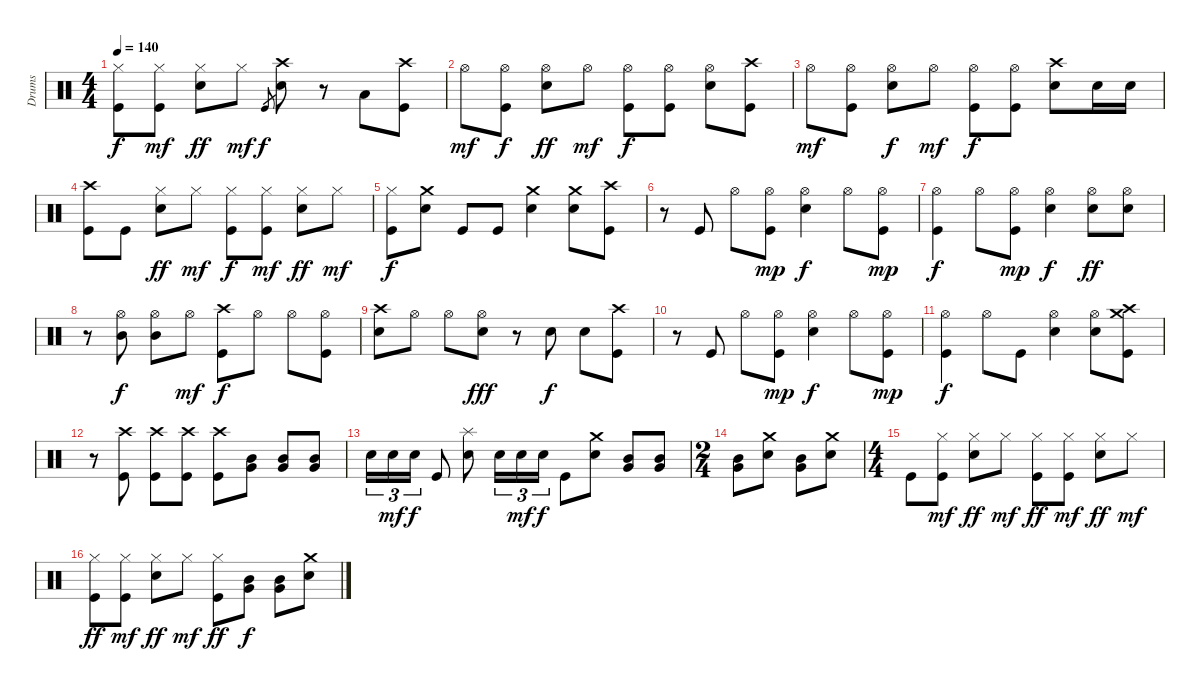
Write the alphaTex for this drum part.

\track ("Drums" "Drums") {instrument percussion}
\staff {score}
\articulation defaults
\ts (4 4)
\tempo 140
\clef neutral
\ks c
("Hi-Hat (closed)" "Kick (hit)").8{dy f} ("Hi-Hat (closed)" "Kick (hit)").8{dy mf} ("Hi-Hat (closed)" "Snare (hit) 2").8{dy ff} "Hi-Hat (closed)".8{dy mf} "Kick (hit)".8{gr dy f} ("Crash high (hit)" "Snare (hit) 2").8 r.8 "Low Tom (hit)".8 ("Crash high (hit)" "Kick (hit)").8 |
"Hi-Hat (open)".8{dy mf} ("Hi-Hat (open)" "Kick (hit)").8{dy f} ("Hi-Hat (open)" "Snare (hit) 2").8{dy ff} "Hi-Hat (open)".8{dy mf} ("Hi-Hat (open)" "Kick (hit)").8{dy f} ("Hi-Hat (open)" "Kick (hit)").8 ("Hi-Hat (open)" "Snare (hit) 2").8 ("Crash high (hit)" "Kick (hit)").8 |
"Hi-Hat (open)".8{dy mf} ("Hi-Hat (open)" "Kick (hit)").8 ("Hi-Hat (open)" "Snare (hit) 2").8{dy f} "Hi-Hat (open)".8{dy mf} ("Hi-Hat (open)" "Kick (hit)").8{dy f} ("Hi-Hat (open)" "Kick (hit)").8 ("Crash high (hit)" "Snare (hit) 2").8 "Snare (hit) 2".16 "Snare (hit) 2".16 |
("Crash high (hit)" "Kick (hit)").8 "Kick (hit)".8 ("Hi-Hat (closed)" "Snare (hit) 2").8{dy ff} "Hi-Hat (closed)".8{dy mf} ("Hi-Hat (closed)" "Kick (hit)").8{dy f} ("Hi-Hat (closed)" "Kick (hit)").8{dy mf} ("Hi-Hat (closed)" "Snare (hit) 2").8{dy ff} "Hi-Hat (closed)".8{dy mf} |
("Hi-Hat (closed)" "Kick (hit)").8{dy f} ("Crash medium (hit)" "Snare (hit) 2").8 "Kick (hit)".8 "Kick (hit)".8 ("Crash medium (hit)" "Snare (hit) 2").4 ("Crash medium (hit)" "Snare (hit) 2").8 ("Crash high (hit)" "Kick (hit)").8 |
r.8 "Kick (hit)".8 "Hi-Hat (open)".8 ("Hi-Hat (open)" "Kick (hit)").8{dy mp} ("Hi-Hat (open)" "Snare (hit) 2").4{dy f} "Hi-Hat (open)".8 ("Hi-Hat (open)" "Kick (hit)").8{dy mp} |
("Hi-Hat (open)" "Kick (hit)").4{dy f} "Hi-Hat (open)".8 ("Hi-Hat (open)" "Kick (hit)").8{dy mp} ("Hi-Hat (open)" "Snare (hit) 2").4{dy f} ("Hi-Hat (open)" "Snare (hit) 2").8{dy ff} ("Hi-Hat (open)" "Snare (hit) 2").8 |
r.8 ("Hi-Hat (open)" "Mid Tom (hit)").8{dy f} ("Hi-Hat (open)" "Mid Tom (hit)").8 "Hi-Hat (open)".8{dy mf} ("Crash high (hit)" "Kick (hit)").8{dy f} "Hi-Hat (open)".8 "Hi-Hat (open)".8 ("Hi-Hat (open)" "Kick (hit)").8 |
("Crash high (hit)" "Snare (hit) 2").8 "Hi-Hat (open)".8 "Hi-Hat (open)".8 ("Hi-Hat (open)" "Snare (hit) 2").8{dy fff} r.8 "Snare (hit) 2".8{dy f} "Snare (hit) 2".8 ("Crash high (hit)" "Kick (hit)").8 |
r.8 "Kick (hit)".8 "Hi-Hat (open)".8 ("Hi-Hat (open)" "Kick (hit)").8{dy mp} ("Hi-Hat (open)" "Snare (hit) 2").4{dy f} "Hi-Hat (open)".8 ("Hi-Hat (open)" "Kick (hit)").8{dy mp} |
("Hi-Hat (open)" "Kick (hit)").4{dy f} "Hi-Hat (open)".8 "Kick (hit)".8 ("Hi-Hat (open)" "Snare (hit) 2").4 ("Hi-Hat (open)" "Snare (hit) 2").8 ("Crash medium (hit)" "Crash high (hit)" "Kick (hit)").8 |
r.8 ("Crash high (hit)" "Kick (hit)").8 ("Crash high (hit)" "Kick (hit)").8 ("Crash high (hit)" "Kick (hit)").8 ("Crash high (hit)" "Kick (hit)").8 ("Very Low Tom (hit)" "Mid Tom (hit)").8 ("Very Low Tom (hit)" "Mid Tom (hit)").8 ("Very Low Tom (hit)" "Mid Tom (hit)").8 |
"Snare (hit) 2".16{tu (3 2)} "Snare (hit) 2".16{tu (3 2) dy mf} "Snare (hit) 2".16{tu (3 2) dy f} "Kick (hit)".8 ("Splash (hit)" "Snare (hit) 2").8 "Snare (hit) 2".16{tu (3 2)} "Snare (hit) 2".16{tu (3 2) dy mf} "Snare (hit) 2".16{tu (3 2) dy f} "Kick (hit)".8 ("Crash medium (hit)" "Snare (hit) 2").8 ("Mid Tom (hit)" "Very Low Tom (hit)").8 ("Mid Tom (hit)" "Very Low Tom (hit)").8 |
\ts (2 4)
("Mid Tom (hit)" "Very Low Tom (hit)").8 ("Crash medium (hit)" "Snare (hit) 2").8 ("Mid Tom (hit)" "Very Low Tom (hit)").8 ("Crash medium (hit)" "Snare (hit) 2").8 |
\ts (4 4)
"Kick (hit)".8 ("Hi-Hat (closed)" "Kick (hit)").8{dy mf} ("Hi-Hat (closed)" "Snare (hit) 2").8{dy ff} "Hi-Hat (closed)".8{dy mf} ("Hi-Hat (closed)" "Kick (hit)").8{dy ff} ("Hi-Hat (closed)" "Kick (hit)").8{dy mf} ("Hi-Hat (closed)" "Snare (hit) 2").8{dy ff} "Hi-Hat (closed)".8{dy mf} |
("Hi-Hat (closed)" "Kick (hit)").8{dy ff} ("Hi-Hat (closed)" "Kick (hit)").8{dy mf} ("Hi-Hat (closed)" "Snare (hit) 2").8{dy ff} "Hi-Hat (closed)".8{dy mf} ("Hi-Hat (closed)" "Kick (hit)").8{dy ff} ("Mid Tom (hit)" "Very Low Tom (hit)").8{dy f} ("Mid Tom (hit)" "Very Low Tom (hit)").8 ("Crash medium (hit)" "Snare (hit) 2").8
